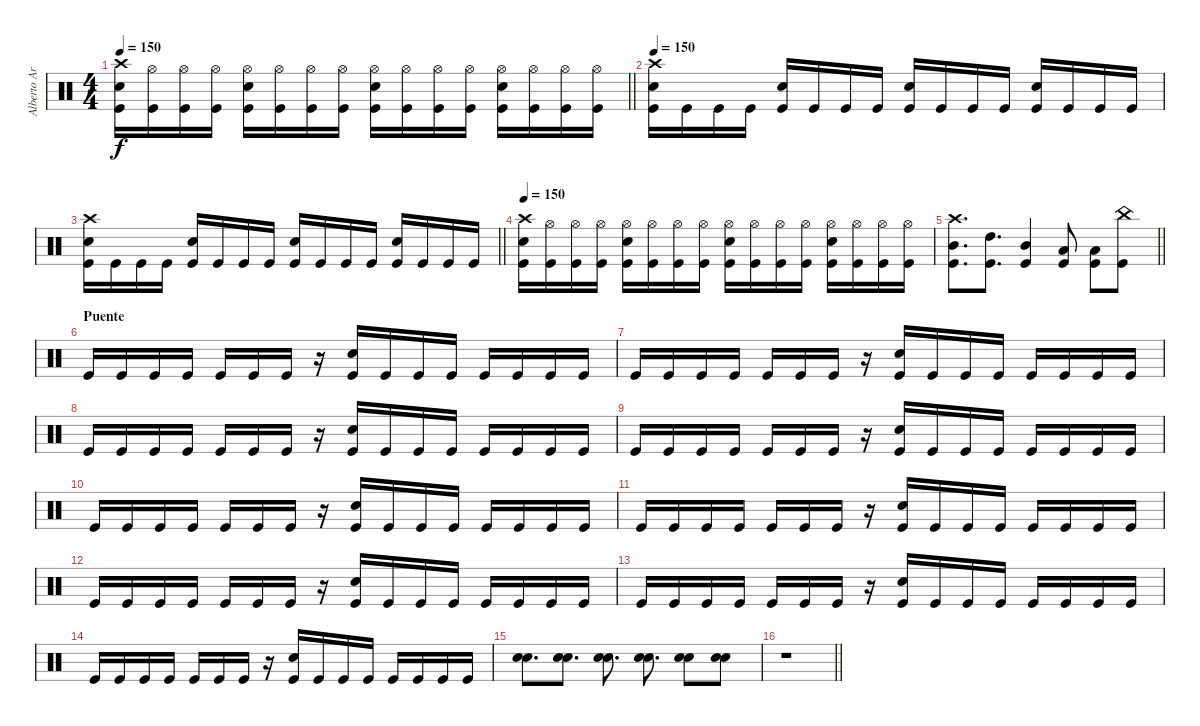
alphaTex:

\track ("Alberto Ardines" "Alberto Ar") {instrument percussion}
\staff {score}
\articulation defaults
\ts (4 4)
\tempo 150
\clef neutral
\barLineRight lightlight
\ks c
("Crash high (hit)" "Kick (hit)" "Snare (hit) 2").16{dy f} ("Hi-Hat (open)" "Kick (hit)").16 ("Hi-Hat (open)" "Kick (hit)").16 ("Hi-Hat (open)" "Kick (hit)").16 ("Hi-Hat (open)" "Kick (hit)" "Snare (hit) 2").16 ("Hi-Hat (open)" "Kick (hit)").16 ("Hi-Hat (open)" "Kick (hit)").16 ("Hi-Hat (open)" "Kick (hit)").16 ("Hi-Hat (open)" "Kick (hit)" "Snare (hit) 2").16 ("Hi-Hat (open)" "Kick (hit)").16 ("Hi-Hat (open)" "Kick (hit)").16 ("Hi-Hat (open)" "Kick (hit)").16 ("Hi-Hat (open)" "Kick (hit)" "Snare (hit) 2").16 ("Hi-Hat (open)" "Kick (hit)").16 ("Hi-Hat (open)" "Kick (hit)").16 ("Hi-Hat (open)" "Kick (hit)").16 |
\tempo 150
("Crash high (hit)" "Kick (hit)" "Snare (hit) 2").16 "Kick (hit)".16 "Kick (hit)".16 "Kick (hit)".16 ("Kick (hit)" "Snare (hit) 2").16 "Kick (hit)".16 "Kick (hit)".16 "Kick (hit)".16 ("Kick (hit)" "Snare (hit) 2").16 "Kick (hit)".16 "Kick (hit)".16 "Kick (hit)".16 ("Kick (hit)" "Snare (hit) 2").16 "Kick (hit)".16 "Kick (hit)".16 "Kick (hit)".16 |
\barLineRight lightlight
("Crash high (hit)" "Kick (hit)" "Snare (hit) 2").16 "Kick (hit)".16 "Kick (hit)".16 "Kick (hit)".16 ("Kick (hit)" "Snare (hit) 2").16 "Kick (hit)".16 "Kick (hit)".16 "Kick (hit)".16 ("Kick (hit)" "Snare (hit) 2").16 "Kick (hit)".16 "Kick (hit)".16 "Kick (hit)".16 ("Kick (hit)" "Snare (hit) 2").16 "Kick (hit)".16 "Kick (hit)".16 "Kick (hit)".16 |
\tempo 150
("Crash high (hit)" "Kick (hit)" "Snare (hit) 2").16 ("Hi-Hat (open)" "Kick (hit)").16 ("Hi-Hat (open)" "Kick (hit)").16 ("Hi-Hat (open)" "Kick (hit)").16 ("Hi-Hat (open)" "Kick (hit)" "Snare (hit) 2").16 ("Hi-Hat (open)" "Kick (hit)").16 ("Hi-Hat (open)" "Kick (hit)").16 ("Hi-Hat (open)" "Kick (hit)").16 ("Hi-Hat (open)" "Kick (hit)" "Snare (hit) 2").16 ("Hi-Hat (open)" "Kick (hit)").16 ("Hi-Hat (open)" "Kick (hit)").16 ("Hi-Hat (open)" "Kick (hit)").16 ("Hi-Hat (open)" "Kick (hit)" "Snare (hit) 2").16 ("Hi-Hat (open)" "Kick (hit)").16 ("Hi-Hat (open)" "Kick (hit)").16 ("Hi-Hat (open)" "Kick (hit)").16 |
\barLineRight lightlight
("Crash high (hit)" "Kick (hit)" "Mid Tom (hit)").8{d} ("Kick (hit)" "High Tom (hit)").8{d} ("Kick (hit)" "Mid Tom (hit)").4 ("Kick (hit)" "Low Tom (hit)").8 ("Kick (hit)" "Low Floor Tom (hit)").8 ("China (hit)" "Kick (hit)").8 |
\section ("" "Puente")
"Kick (hit)".16 "Kick (hit)".16 "Kick (hit)".16 "Kick (hit)".16 "Kick (hit)".16 "Kick (hit)".16 "Kick (hit)".16 r.16 ("Kick (hit)" "Snare (hit) 2").16 "Kick (hit)".16 "Kick (hit)".16 "Kick (hit)".16 "Kick (hit)".16 "Kick (hit)".16 "Kick (hit)".16 "Kick (hit)".16 |
"Kick (hit)".16 "Kick (hit)".16 "Kick (hit)".16 "Kick (hit)".16 "Kick (hit)".16 "Kick (hit)".16 "Kick (hit)".16 r.16 ("Kick (hit)" "Snare (hit) 2").16 "Kick (hit)".16 "Kick (hit)".16 "Kick (hit)".16 "Kick (hit)".16 "Kick (hit)".16 "Kick (hit)".16 "Kick (hit)".16 |
"Kick (hit)".16 "Kick (hit)".16 "Kick (hit)".16 "Kick (hit)".16 "Kick (hit)".16 "Kick (hit)".16 "Kick (hit)".16 r.16 ("Kick (hit)" "Snare (hit) 2").16 "Kick (hit)".16 "Kick (hit)".16 "Kick (hit)".16 "Kick (hit)".16 "Kick (hit)".16 "Kick (hit)".16 "Kick (hit)".16 |
"Kick (hit)".16 "Kick (hit)".16 "Kick (hit)".16 "Kick (hit)".16 "Kick (hit)".16 "Kick (hit)".16 "Kick (hit)".16 r.16 ("Kick (hit)" "Snare (hit) 2").16 "Kick (hit)".16 "Kick (hit)".16 "Kick (hit)".16 "Kick (hit)".16 "Kick (hit)".16 "Kick (hit)".16 "Kick (hit)".16 |
"Kick (hit)".16 "Kick (hit)".16 "Kick (hit)".16 "Kick (hit)".16 "Kick (hit)".16 "Kick (hit)".16 "Kick (hit)".16 r.16 ("Kick (hit)" "Snare (hit) 2").16 "Kick (hit)".16 "Kick (hit)".16 "Kick (hit)".16 "Kick (hit)".16 "Kick (hit)".16 "Kick (hit)".16 "Kick (hit)".16 |
"Kick (hit)".16 "Kick (hit)".16 "Kick (hit)".16 "Kick (hit)".16 "Kick (hit)".16 "Kick (hit)".16 "Kick (hit)".16 r.16 ("Kick (hit)" "Snare (hit) 2").16 "Kick (hit)".16 "Kick (hit)".16 "Kick (hit)".16 "Kick (hit)".16 "Kick (hit)".16 "Kick (hit)".16 "Kick (hit)".16 |
"Kick (hit)".16 "Kick (hit)".16 "Kick (hit)".16 "Kick (hit)".16 "Kick (hit)".16 "Kick (hit)".16 "Kick (hit)".16 r.16 ("Kick (hit)" "Snare (hit) 2").16 "Kick (hit)".16 "Kick (hit)".16 "Kick (hit)".16 "Kick (hit)".16 "Kick (hit)".16 "Kick (hit)".16 "Kick (hit)".16 |
"Kick (hit)".16 "Kick (hit)".16 "Kick (hit)".16 "Kick (hit)".16 "Kick (hit)".16 "Kick (hit)".16 "Kick (hit)".16 r.16 ("Kick (hit)" "Snare (hit) 2").16 "Kick (hit)".16 "Kick (hit)".16 "Kick (hit)".16 "Kick (hit)".16 "Kick (hit)".16 "Kick (hit)".16 "Kick (hit)".16 |
"Kick (hit)".16 "Kick (hit)".16 "Kick (hit)".16 "Kick (hit)".16 "Kick (hit)".16 "Kick (hit)".16 "Kick (hit)".16 r.16 ("Kick (hit)" "Snare (hit) 2").16 "Kick (hit)".16 "Kick (hit)".16 "Kick (hit)".16 "Kick (hit)".16 "Kick (hit)".16 "Kick (hit)".16 "Kick (hit)".16 |
("Snare (hit) 2" "Snare (hit) 2").8{d} ("Snare (hit) 2" "Snare (hit) 2").8{d} ("Snare (hit) 2" "Snare (hit) 2").8{d} ("Snare (hit) 2" "Snare (hit) 2").8{d} ("Snare (hit) 2" "Snare (hit) 2").8 ("Snare (hit) 2" "Snare (hit) 2").8 |
\barLineRight lightlight
r.1
